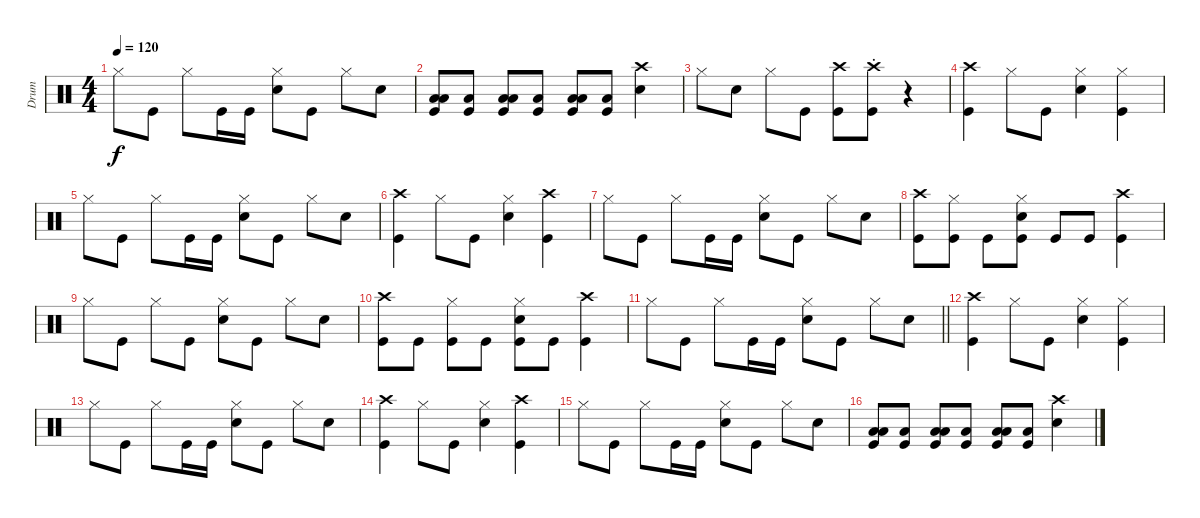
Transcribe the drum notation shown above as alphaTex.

\track ("Drum" "Drum") {instrument percussion}
\staff {score}
\articulation defaults
\ts (4 4)
\tempo 120
\clef neutral
\ks c "Hi-Hat (closed)".8{dy f} "Kick (hit)".8 "Hi-Hat (closed)".8 "Kick (hit)".16 "Kick (hit)".16
("Hi-Hat (closed)" "Snare (hit) 2").8 "Kick (hit)".8 "Hi-Hat (closed)".8 "Snare (hit) 2".8 |
("Low Tom (hit)" "Low Floor Tom (hit)" "Kick (hit)").8 ("Low Tom (hit)" "Kick (hit)").8 ("Low Tom (hit)" "Low Floor Tom (hit)" "Kick (hit)").8 ("Low Tom (hit)" "Kick (hit)").8 ("Low Tom (hit)" "Low Floor Tom (hit)" "Kick (hit)").8 ("Low Tom (hit)" "Kick (hit)").8 ("Crash high (hit)" "Snare (hit) 2").4 |
"Hi-Hat (closed)".8 "Snare (hit) 2".8 "Hi-Hat (closed)".8 "Kick (hit)".8 ("Crash high (hit)" "Kick (hit)").8 ("Crash high (hit)"{st} "Kick (hit)").8 r.4 |
("Crash high (hit)" "Kick (hit)").4 "Hi-Hat (closed)".8 "Kick (hit)".8 ("Hi-Hat (closed)" "Snare (hit) 2").4 ("Hi-Hat (closed)" "Kick (hit)").4 |
"Hi-Hat (closed)".8 "Kick (hit)".8 "Hi-Hat (closed)".8 "Kick (hit)".16 "Kick (hit)".16 ("Hi-Hat (closed)" "Snare (hit) 2").8 "Kick (hit)".8 "Hi-Hat (closed)".8 "Snare (hit) 2".8 |
("Crash high (hit)" "Kick (hit)").4 "Hi-Hat (closed)".8 "Kick (hit)".8 ("Hi-Hat (closed)" "Snare (hit) 2").4 ("Crash high (hit)" "Kick (hit)").4 |
"Hi-Hat (closed)".8 "Kick (hit)".8 "Hi-Hat (closed)".8 "Kick (hit)".16 "Kick (hit)".16 ("Hi-Hat (closed)" "Snare (hit) 2").8 "Kick (hit)".8 "Hi-Hat (closed)".8 "Snare (hit) 2".8 |
("Crash high (hit)" "Kick (hit)").8 ("Hi-Hat (closed)" "Kick (hit)").8 "Kick (hit)".8 ("Hi-Hat (closed)" "Snare (hit) 2" "Kick (hit)").8 "Kick (hit)".8 "Kick (hit)".8 ("Crash high (hit)" "Kick (hit)").4 |
"Hi-Hat (closed)".8 "Kick (hit)".8 "Hi-Hat (closed)".8 "Kick (hit)".8 ("Hi-Hat (closed)" "Snare (hit) 2").8 "Kick (hit)".8 "Hi-Hat (closed)".8 "Snare (hit) 2".8 |
("Crash high (hit)" "Kick (hit)").8 "Kick (hit)".8 ("Hi-Hat (closed)" "Kick (hit)").8 "Kick (hit)".8 ("Hi-Hat (closed)" "Snare (hit) 2" "Kick (hit)").8 "Kick (hit)".8 ("Crash high (hit)" "Kick (hit)").4 |
\barLineRight lightlight "Hi-Hat (closed)".8 "Kick (hit)".8 "Hi-Hat (closed)".8 "Kick (hit)".16 "Kick (hit)".16
("Hi-Hat (closed)" "Snare (hit) 2").8 "Kick (hit)".8 "Hi-Hat (closed)".8 "Snare (hit) 2".8 |
("Crash high (hit)" "Kick (hit)").4 "Hi-Hat (closed)".8 "Kick (hit)".8 ("Hi-Hat (closed)" "Snare (hit) 2").4 ("Hi-Hat (closed)" "Kick (hit)").4 |
"Hi-Hat (closed)".8 "Kick (hit)".8 "Hi-Hat (closed)".8 "Kick (hit)".16 "Kick (hit)".16 ("Hi-Hat (closed)" "Snare (hit) 2").8 "Kick (hit)".8 "Hi-Hat (closed)".8 "Snare (hit) 2".8 |
("Crash high (hit)" "Kick (hit)").4 "Hi-Hat (closed)".8 "Kick (hit)".8 ("Hi-Hat (closed)" "Snare (hit) 2").4 ("Crash high (hit)" "Kick (hit)").4 |
"Hi-Hat (closed)".8 "Kick (hit)".8 "Hi-Hat (closed)".8 "Kick (hit)".16 "Kick (hit)".16 ("Hi-Hat (closed)" "Snare (hit) 2").8 "Kick (hit)".8 "Hi-Hat (closed)".8 "Snare (hit) 2".8 |
("Low Tom (hit)" "Low Floor Tom (hit)" "Kick (hit)").8 ("Low Tom (hit)" "Kick (hit)").8 ("Low Tom (hit)" "Low Floor Tom (hit)" "Kick (hit)").8 ("Low Tom (hit)" "Kick (hit)").8 ("Low Tom (hit)" "Low Floor Tom (hit)" "Kick (hit)").8 ("Low Tom (hit)" "Kick (hit)").8 ("Crash high (hit)" "Snare (hit) 2").4
